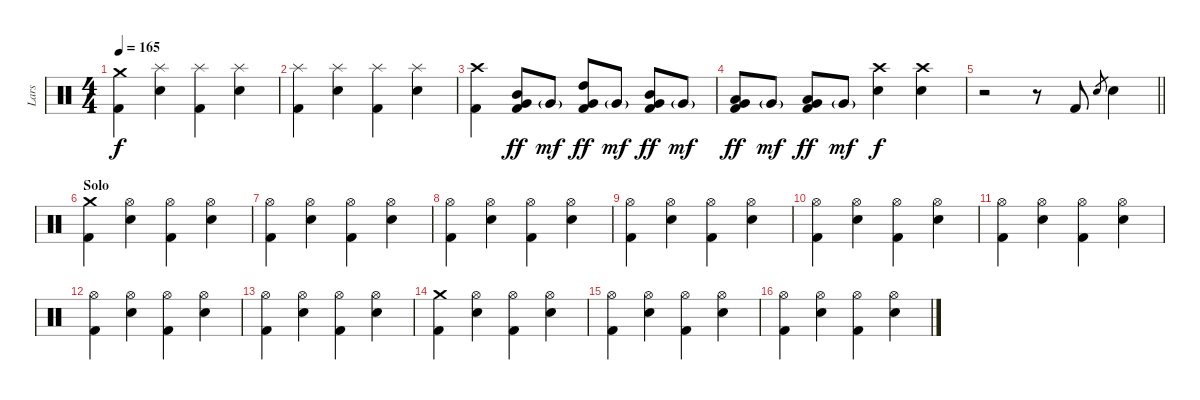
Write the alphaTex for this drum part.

\track ("Lars" "Lars") {instrument percussion}
\staff {score}
\articulation defaults
\ts (4 4)
\tempo 165
\clef neutral
\ks c
("Crash medium (hit)" "Kick (hit) 2").4{dy f} ("Splash (hit)" "Snare (hit) 2").4 ("Splash (hit)" "Kick (hit) 2").4 ("Splash (hit)" "Snare (hit) 2").4 |
("Splash (hit)" "Kick (hit) 2").4 ("Splash (hit)" "Snare (hit) 2").4 ("Splash (hit)" "Kick (hit) 2").4 ("Splash (hit)" "Snare (hit) 2").4 |
("Crash high (hit)" "Kick (hit) 2").4 ("Mid Tom (hit)" "Very Low Tom (hit)" "Kick (hit) 2").8{dy ff} "Very Low Tom (hit)"{g}.8{dy mf} ("High Tom (hit)" "Very Low Tom (hit)" "Kick (hit) 2").8{dy ff} "Very Low Tom (hit)"{g}.8{dy mf} ("Mid Tom (hit)" "Very Low Tom (hit)" "Kick (hit) 2").8{dy ff} "Very Low Tom (hit)"{g}.8{dy mf} |
("Low Tom (hit)" "Very Low Tom (hit)" "Kick (hit) 2").8{dy ff} "Very Low Tom (hit)"{g}.8{dy mf} ("Low Tom (hit)" "Very Low Tom (hit)" "Kick (hit) 2").8{dy ff} "Very Low Tom (hit)"{g}.8{dy mf} ("Crash high (hit)" "Snare (hit) 2").4{dy f} ("Crash high (hit)" "Snare (hit) 2").4 |
\barLineRight lightlight
r.2 r.8 "Kick (hit) 2".8 "Snare (hit) 2".8{gr} "Snare (hit) 2".4 |
\section ("" "Solo")
("Crash medium (hit)" "Kick (hit) 2").4 ("Hi-Hat (open)" "Snare (hit) 2").4 ("Hi-Hat (open)" "Kick (hit) 2").4 ("Hi-Hat (open)" "Snare (hit) 2").4 |
("Hi-Hat (open)" "Kick (hit) 2").4 ("Hi-Hat (open)" "Snare (hit) 2").4 ("Hi-Hat (open)" "Kick (hit) 2").4 ("Hi-Hat (open)" "Snare (hit) 2").4 |
("Hi-Hat (open)" "Kick (hit) 2").4 ("Hi-Hat (open)" "Snare (hit) 2").4 ("Hi-Hat (open)" "Kick (hit) 2").4 ("Hi-Hat (open)" "Snare (hit) 2").4 |
("Hi-Hat (open)" "Kick (hit) 2").4 ("Hi-Hat (open)" "Snare (hit) 2").4 ("Hi-Hat (open)" "Kick (hit) 2").4 ("Hi-Hat (open)" "Snare (hit) 2").4 |
("Hi-Hat (open)" "Kick (hit) 2").4 ("Hi-Hat (open)" "Snare (hit) 2").4 ("Hi-Hat (open)" "Kick (hit) 2").4 ("Hi-Hat (open)" "Snare (hit) 2").4 |
("Hi-Hat (open)" "Kick (hit) 2").4 ("Hi-Hat (open)" "Snare (hit) 2").4 ("Hi-Hat (open)" "Kick (hit) 2").4 ("Hi-Hat (open)" "Snare (hit) 2").4 |
("Hi-Hat (open)" "Kick (hit) 2").4 ("Hi-Hat (open)" "Snare (hit) 2").4 ("Hi-Hat (open)" "Kick (hit) 2").4 ("Hi-Hat (open)" "Snare (hit) 2").4 |
("Hi-Hat (open)" "Kick (hit) 2").4 ("Hi-Hat (open)" "Snare (hit) 2").4 ("Hi-Hat (open)" "Kick (hit) 2").4 ("Hi-Hat (open)" "Snare (hit) 2").4 |
("Crash medium (hit)" "Kick (hit) 2").4 ("Hi-Hat (open)" "Snare (hit) 2").4 ("Hi-Hat (open)" "Kick (hit) 2").4 ("Hi-Hat (open)" "Snare (hit) 2").4 |
("Hi-Hat (open)" "Kick (hit) 2").4 ("Hi-Hat (open)" "Snare (hit) 2").4 ("Hi-Hat (open)" "Kick (hit) 2").4 ("Hi-Hat (open)" "Snare (hit) 2").4 |
("Hi-Hat (open)" "Kick (hit) 2").4 ("Hi-Hat (open)" "Snare (hit) 2").4 ("Hi-Hat (open)" "Kick (hit) 2").4 ("Hi-Hat (open)" "Snare (hit) 2").4
